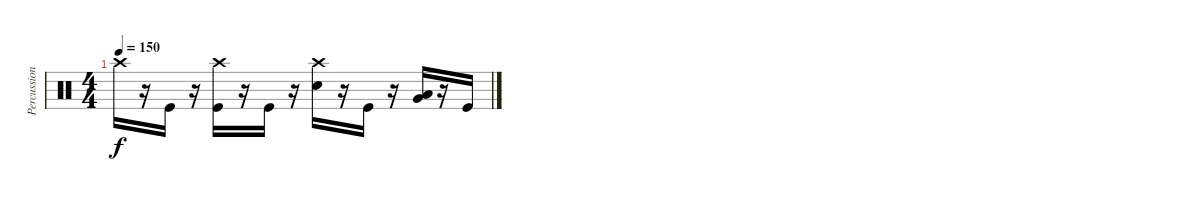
\track ("Percussion" "Percussion") {instrument percussion}
\staff {score}
\articulation defaults
\ts (4 4)
\tempo 150
\clef neutral
\ks c "Crash high (hit)".16{dy f}
r.16 "Kick (hit)".16 r.16 ("Crash high (hit)" "Kick (hit)").16 r.16 "Kick (hit)".16 r.16 ("Crash high (hit)" "Electric Snare (hit)").16 r.16 "Kick (hit)".16 r.16 ("Low Tom (hit)" "Very Low Tom (hit)").16 r.16 "Kick (hit)".16
